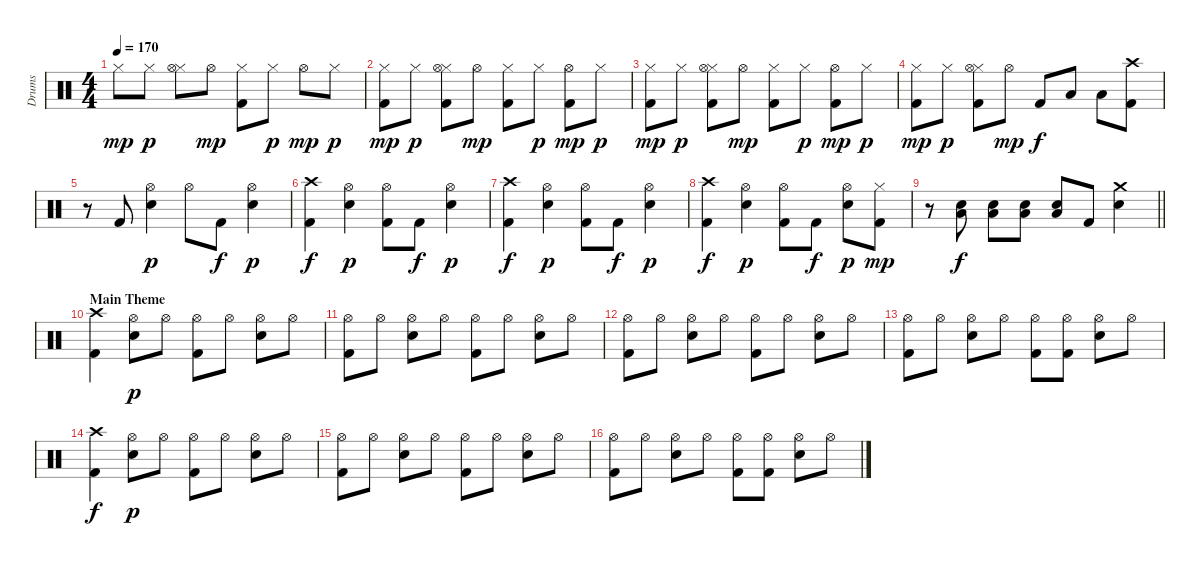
\track ("Drums" "Drums") {instrument percussion}
\staff {score}
\articulation defaults
\ts (4 4)
\tempo 170
\clef neutral
\ks c "Hi-Hat (closed)".8{dy mp} "Hi-Hat (closed)".8{dy p}
("Hi-Hat (closed)" "Hi-Hat (open)").8 "Hi-Hat (open)".8{dy mp} ("Hi-Hat (closed)" "Kick (hit) 2").8 "Hi-Hat (closed)".8{dy p} "Hi-Hat (open)".8{dy mp} "Hi-Hat (closed)".8{dy p} |
("Hi-Hat (closed)" "Kick (hit) 2").8{dy mp} "Hi-Hat (closed)".8{dy p} ("Hi-Hat (closed)" "Hi-Hat (open)" "Kick (hit) 2").8 "Hi-Hat (open)".8{dy mp} ("Hi-Hat (closed)" "Kick (hit) 2").8 "Hi-Hat (closed)".8{dy p} ("Hi-Hat (open)" "Kick (hit) 2").8{dy mp} "Hi-Hat (closed)".8{dy p} |
("Hi-Hat (closed)" "Kick (hit) 2").8{dy mp} "Hi-Hat (closed)".8{dy p} ("Hi-Hat (closed)" "Hi-Hat (open)" "Kick (hit) 2").8 "Hi-Hat (open)".8{dy mp} ("Hi-Hat (closed)" "Kick (hit) 2").8 "Hi-Hat (closed)".8{dy p} ("Hi-Hat (open)" "Kick (hit) 2").8{dy mp} "Hi-Hat (closed)".8{dy p} |
("Hi-Hat (closed)" "Kick (hit) 2").8{dy mp} "Hi-Hat (closed)".8{dy p} ("Hi-Hat (closed)" "Hi-Hat (open)" "Kick (hit) 2").8 "Hi-Hat (open)".8{dy mp} "Kick (hit) 2".8{dy f} "Low Tom (hit)".8 "Low Tom (hit)".8 ("Crash high (hit)" "Kick (hit) 2").8 |
r.8 "Kick (hit) 2".8 ("Hi-Hat (open)" "Electric Snare (hit)").4{dy p} "Hi-Hat (open)".8 "Kick (hit) 2".8{dy f} ("Hi-Hat (open)" "Electric Snare (hit)").4{dy p} |
("Crash high (hit)" "Kick (hit) 2").4{dy f} ("Hi-Hat (open)" "Electric Snare (hit)").4{dy p} ("Hi-Hat (open)" "Kick (hit) 2").8 "Kick (hit) 2".8{dy f} ("Hi-Hat (open)" "Electric Snare (hit)").4{dy p} |
("Crash high (hit)" "Kick (hit) 2").4{dy f} ("Hi-Hat (open)" "Electric Snare (hit)").4{dy p} ("Hi-Hat (open)" "Kick (hit) 2").8 "Kick (hit) 2".8{dy f} ("Hi-Hat (open)" "Electric Snare (hit)").4{dy p} |
("Crash high (hit)" "Kick (hit) 2").4{dy f} ("Hi-Hat (open)" "Electric Snare (hit)").4{dy p} ("Hi-Hat (open)" "Kick (hit) 2").8 "Kick (hit) 2".8{dy f} ("Hi-Hat (open)" "Electric Snare (hit)").8{dy p} ("Hi-Hat (closed)" "Kick (hit) 2").8{dy mp} |
\barLineRight lightlight
r.8 ("Electric Snare (hit)" "Low Tom (hit)").8{dy f} ("Electric Snare (hit)" "Low Tom (hit)").8 ("Electric Snare (hit)" "Low Tom (hit)").8 ("Electric Snare (hit)" "Low Tom (hit)").8 "Kick (hit) 2".8 ("Crash medium (hit)" "Electric Snare (hit)").4 |
\section ("" "Main Theme")
("Crash high (hit)" "Kick (hit) 2").4 ("Hi-Hat (open)" "Electric Snare (hit)").8{dy p} "Hi-Hat (open)".8 ("Hi-Hat (open)" "Kick (hit) 2").8 "Hi-Hat (open)".8 ("Hi-Hat (open)" "Electric Snare (hit)").8 "Hi-Hat (open)".8 |
("Hi-Hat (open)" "Kick (hit) 2").8 "Hi-Hat (open)".8 ("Hi-Hat (open)" "Electric Snare (hit)").8 "Hi-Hat (open)".8 ("Hi-Hat (open)" "Kick (hit) 2").8 "Hi-Hat (open)".8 ("Hi-Hat (open)" "Electric Snare (hit)").8 "Hi-Hat (open)".8 |
("Hi-Hat (open)" "Kick (hit) 2").8 "Hi-Hat (open)".8 ("Hi-Hat (open)" "Electric Snare (hit)").8 "Hi-Hat (open)".8 ("Hi-Hat (open)" "Kick (hit) 2").8 "Hi-Hat (open)".8 ("Hi-Hat (open)" "Electric Snare (hit)").8 "Hi-Hat (open)".8 |
("Hi-Hat (open)" "Kick (hit) 2").8 "Hi-Hat (open)".8 ("Hi-Hat (open)" "Electric Snare (hit)").8 "Hi-Hat (open)".8 ("Hi-Hat (open)" "Kick (hit) 2").8 ("Hi-Hat (open)" "Kick (hit) 2").8 ("Hi-Hat (open)" "Electric Snare (hit)").8 "Hi-Hat (open)".8 |
("Crash high (hit)" "Kick (hit) 2").4{dy f} ("Hi-Hat (open)" "Electric Snare (hit)").8{dy p} "Hi-Hat (open)".8 ("Hi-Hat (open)" "Kick (hit) 2").8 "Hi-Hat (open)".8 ("Hi-Hat (open)" "Electric Snare (hit)").8 "Hi-Hat (open)".8 |
("Hi-Hat (open)" "Kick (hit) 2").8 "Hi-Hat (open)".8 ("Hi-Hat (open)" "Electric Snare (hit)").8 "Hi-Hat (open)".8 ("Hi-Hat (open)" "Kick (hit) 2").8 "Hi-Hat (open)".8 ("Hi-Hat (open)" "Electric Snare (hit)").8 "Hi-Hat (open)".8 |
("Hi-Hat (open)" "Kick (hit) 2").8 "Hi-Hat (open)".8 ("Hi-Hat (open)" "Electric Snare (hit)").8 "Hi-Hat (open)".8 ("Hi-Hat (open)" "Kick (hit) 2").8 ("Hi-Hat (open)" "Kick (hit) 2").8 ("Hi-Hat (open)" "Electric Snare (hit)").8 "Hi-Hat (open)".8
